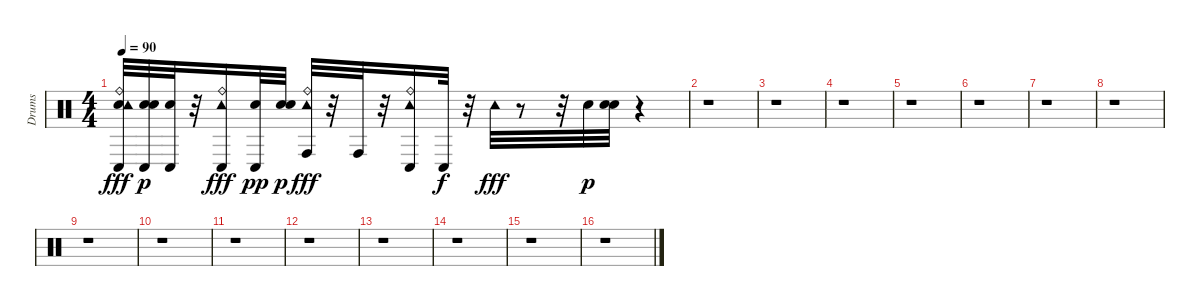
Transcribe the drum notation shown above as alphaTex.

\track ("Drums" "Drums") {instrument percussion}
\staff {score}
\articulation defaults
\ts (4 4)
\tempo 90
\clef neutral
\ks c
("Ride (bell)" "Conga low (hit)" "Electric Snare (hit)" "Tambourine (hit)").32{dy fff} ("Electric Snare (hit)" "Conga low (hit)" "Electric Snare (hit)").32{dy p} ("Conga low (hit)" "Electric Snare (hit)").32 r.32 ("Ride (bell)" "Conga low (hit)" "Tambourine (hit)").16{dy fff} ("Conga low (hit)" "Electric Snare (hit)").32{dy pp} ("Electric Snare (hit)" "Electric Snare (hit)").32{dy p} ("Ride (bell)" "Conga high (hit)" "Tambourine (hit)").32{dy fff} r.32 "Conga high (hit)".32 r.32 ("Ride (bell)" "Conga low (hit)" "Tambourine (hit)").16 "Conga low (hit)".32{dy f} r.32 "Tambourine (hit)".32{dy fff} r.8 r.32 "Electric Snare (hit)".32{dy p} ("Electric Snare (hit)" "Electric Snare (hit)").32 r.4 |
r.1 |
r.1 |
r.1 |
r.1 |
r.1 |
r.1 |
r.1 |
r.1 |
r.1 |
r.1 |
r.1 |
r.1 |
r.1 |
r.1 |
r.1
